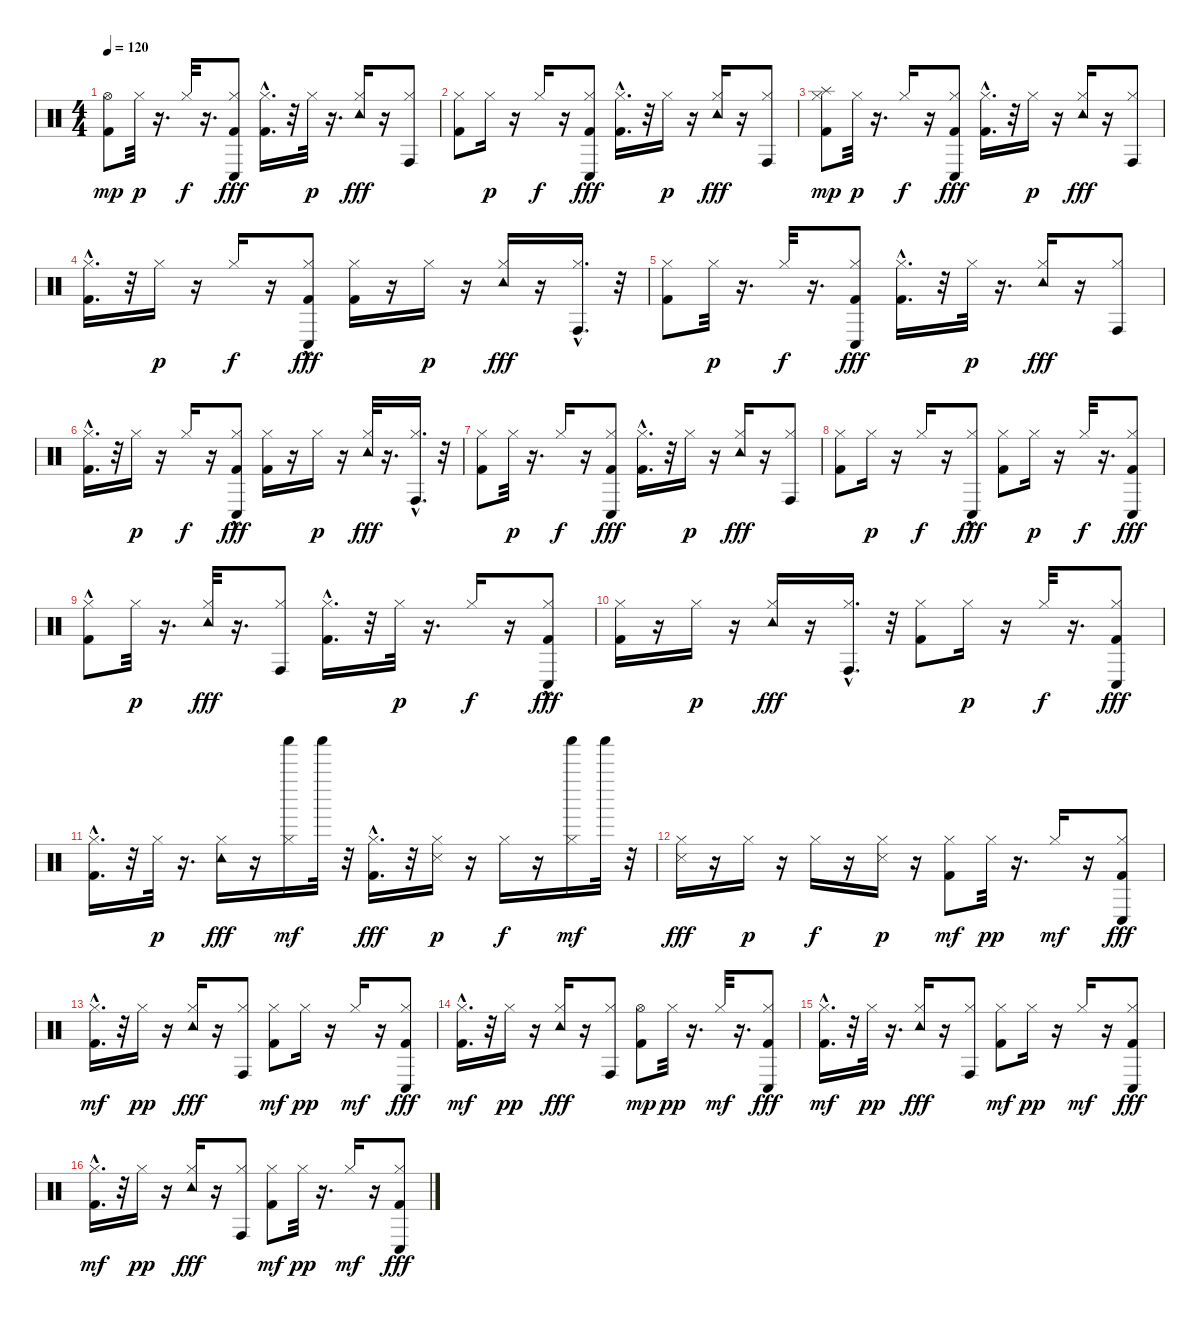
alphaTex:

\track "" {instrument percussion}
\staff {score}
\articulation defaults
\ts (4 4)
\tempo 120
\clef neutral
\ks c
("Kick (hit) 2" "Hi-Hat (open)").8{dy mp} "Hi-Hat (closed)".32{dy p} r.16{d} "Hi-Hat (closed)".32{dy f} r.16{d} ("Kick (hit) 2" "Hi-Hat (closed)" "Conga low (hit)").8{dy fff} ("Kick (hit) 2"{hac} "Hi-Hat (closed)").16{d} r.32 "Hi-Hat (closed)".32{dy p} r.16{d} ("Hi-Hat (closed)" "Tambourine (hit)").16{dy fff} r.16 ("Hi-Hat (closed)" "Conga high (hit)").8 |
("Kick (hit) 2" "Hi-Hat (closed)").8 "Hi-Hat (closed)".16{dy p} r.16 "Hi-Hat (closed)".16{dy f} r.16 ("Kick (hit) 2" "Hi-Hat (closed)" "Conga low (hit)").8{dy fff} ("Kick (hit) 2"{hac} "Hi-Hat (closed)").16{d} r.32 "Hi-Hat (closed)".16{dy p} r.16 ("Hi-Hat (closed)" "Tambourine (hit)").16{dy fff} r.16 ("Hi-Hat (closed)" "Conga high (hit)").8 |
("Kick (hit) 2" "Hi-Hat (closed)" "Splash (hit)").8{dy mp} "Hi-Hat (closed)".32{dy p} r.16{d} "Hi-Hat (closed)".16{dy f} r.16 ("Kick (hit) 2" "Hi-Hat (closed)" "Conga low (hit)").8{dy fff} ("Kick (hit) 2"{hac} "Hi-Hat (closed)").16{d} r.32 "Hi-Hat (closed)".16{dy p} r.16 ("Hi-Hat (closed)" "Tambourine (hit)").16{dy fff} r.16 ("Hi-Hat (closed)" "Conga high (hit)").8 |
("Kick (hit) 2"{hac} "Hi-Hat (closed)").16{d} r.32 "Hi-Hat (closed)".16{dy p} r.16 "Hi-Hat (closed)".16{dy f} r.16 ("Kick (hit) 2" "Hi-Hat (closed)" "Conga low (hit)"{hac}).8{dy fff} ("Kick (hit) 2" "Hi-Hat (closed)").16 r.16 "Hi-Hat (closed)".16{dy p} r.16 ("Hi-Hat (closed)" "Tambourine (hit)").16{dy fff} r.16 ("Hi-Hat (closed)" "Conga high (hit)"{hac}).16{d} r.32 |
("Kick (hit) 2" "Hi-Hat (closed)").8 "Hi-Hat (closed)".32{dy p} r.16{d} "Hi-Hat (closed)".32{dy f} r.16{d} ("Kick (hit) 2" "Hi-Hat (closed)" "Conga low (hit)").8{dy fff} ("Kick (hit) 2"{hac} "Hi-Hat (closed)").16{d} r.32 "Hi-Hat (closed)".32{dy p} r.16{d} ("Hi-Hat (closed)" "Tambourine (hit)").16{dy fff} r.16 ("Hi-Hat (closed)" "Conga high (hit)").8 |
("Kick (hit) 2"{hac} "Hi-Hat (closed)").16{d} r.32 "Hi-Hat (closed)".16{dy p} r.16 "Hi-Hat (closed)".16{dy f} r.16 ("Kick (hit) 2" "Hi-Hat (closed)" "Conga low (hit)"{hac}).8{dy fff} ("Kick (hit) 2" "Hi-Hat (closed)").16 r.16 "Hi-Hat (closed)".16{dy p} r.16 ("Hi-Hat (closed)" "Tambourine (hit)").32{dy fff} r.16{d} ("Hi-Hat (closed)" "Conga high (hit)"{hac}).16{d} r.32 |
("Kick (hit) 2" "Hi-Hat (closed)").8 "Hi-Hat (closed)".32{dy p} r.16{d} "Hi-Hat (closed)".16{dy f} r.16 ("Kick (hit) 2" "Hi-Hat (closed)" "Conga low (hit)").8{dy fff} ("Kick (hit) 2"{hac} "Hi-Hat (closed)").16{d} r.32 "Hi-Hat (closed)".16{dy p} r.16 ("Hi-Hat (closed)" "Tambourine (hit)").16{dy fff} r.16 ("Hi-Hat (closed)" "Conga high (hit)").8 |
("Kick (hit) 2" "Hi-Hat (closed)").8 "Hi-Hat (closed)".16{dy p} r.16 "Hi-Hat (closed)".16{dy f} r.16 ("Hi-Hat (closed)" "Conga low (hit)"{hac}).8{dy fff} ("Kick (hit) 2" "Hi-Hat (closed)").8 "Hi-Hat (closed)".16{dy p} r.16 "Hi-Hat (closed)".32{dy f} r.16{d} ("Kick (hit) 2" "Hi-Hat (closed)" "Conga low (hit)").8{dy fff} |
("Kick (hit) 2"{hac} "Hi-Hat (closed)").8 "Hi-Hat (closed)".32{dy p} r.16{d} ("Hi-Hat (closed)" "Tambourine (hit)").32{dy fff} r.16{d} ("Hi-Hat (closed)" "Conga high (hit)").8 ("Kick (hit) 2"{hac} "Hi-Hat (closed)").16{d} r.32 "Hi-Hat (closed)".32{dy p} r.16{d} "Hi-Hat (closed)".16{dy f} r.16 ("Kick (hit) 2" "Hi-Hat (closed)" "Conga low (hit)"{hac}).8{dy fff} |
("Kick (hit) 2" "Hi-Hat (closed)").16 r.16 "Hi-Hat (closed)".16{dy p} r.16 ("Hi-Hat (closed)" "Tambourine (hit)").16{dy fff} r.16 ("Hi-Hat (closed)" "Conga high (hit)"{hac}).16{d} r.32 ("Kick (hit) 2" "Hi-Hat (closed)").8 "Hi-Hat (closed)".16{dy p} r.16 "Hi-Hat (closed)".32{dy f} r.16{d} ("Kick (hit) 2" "Hi-Hat (closed)" "Conga low (hit)").8{dy fff} |
("Kick (hit) 2"{hac} "Hi-Hat (closed)").16{d} r.32 "Hi-Hat (closed)".32{dy p} r.16{d} ("Hi-Hat (closed)" "Tambourine (hit)").16{dy fff} r.16 ("Hi-Hat (closed)" "Shaker (hit)").16{dy mf} "Shaker (hit)".32 r.32 ("Kick (hit) 2"{hac} "Hi-Hat (closed)").16{d dy fff} r.32 ("Snare (side stick) 3" "Hi-Hat (closed)").16{dy p} r.16 "Hi-Hat (closed)".16{dy f} r.16 ("Hi-Hat (closed)" "Shaker (hit)").16{dy mf} "Shaker (hit)".32 r.32 |
("Snare (side stick) 3" "Hi-Hat (closed)").16{dy fff} r.16 "Hi-Hat (closed)".16{dy p} r.16 "Hi-Hat (closed)".16{dy f} r.16 ("Snare (side stick) 3" "Hi-Hat (closed)").16{dy p} r.16 ("Kick (hit) 2" "Hi-Hat (closed)").8{dy mf} "Hi-Hat (closed)".32{dy pp} r.16{d} "Hi-Hat (closed)".16{dy mf} r.16 ("Kick (hit) 2" "Hi-Hat (closed)" "Conga low (hit)").8{dy fff} |
("Kick (hit) 2"{hac} "Hi-Hat (closed)").16{d dy mf} r.32 "Hi-Hat (closed)".16{dy pp} r.16 ("Hi-Hat (closed)" "Tambourine (hit)").16{dy fff} r.16 ("Hi-Hat (closed)" "Conga high (hit)").8 ("Kick (hit) 2" "Hi-Hat (closed)").8{dy mf} "Hi-Hat (closed)".16{dy pp} r.16 "Hi-Hat (closed)".16{dy mf} r.16 ("Kick (hit) 2" "Hi-Hat (closed)" "Conga low (hit)").8{dy fff} |
("Kick (hit) 2"{hac} "Hi-Hat (closed)").16{d dy mf} r.32 "Hi-Hat (closed)".16{dy pp} r.16 ("Hi-Hat (closed)" "Tambourine (hit)").16{dy fff} r.16 ("Hi-Hat (closed)" "Conga high (hit)").8 ("Kick (hit) 2" "Hi-Hat (open)").8{dy mp} "Hi-Hat (closed)".32{dy pp} r.16{d} "Hi-Hat (closed)".32{dy mf} r.16{d} ("Kick (hit) 2" "Hi-Hat (closed)" "Conga low (hit)").8{dy fff} |
("Kick (hit) 2"{hac} "Hi-Hat (closed)").16{d dy mf} r.32 "Hi-Hat (closed)".32{dy pp} r.16{d} ("Hi-Hat (closed)" "Tambourine (hit)").16{dy fff} r.16 ("Hi-Hat (closed)" "Conga high (hit)").8 ("Kick (hit) 2" "Hi-Hat (closed)").8{dy mf} "Hi-Hat (closed)".16{dy pp} r.16 "Hi-Hat (closed)".16{dy mf} r.16 ("Kick (hit) 2" "Hi-Hat (closed)" "Conga low (hit)").8{dy fff} |
("Kick (hit) 2"{hac} "Hi-Hat (closed)").16{d dy mf} r.32 "Hi-Hat (closed)".16{dy pp} r.16 ("Hi-Hat (closed)" "Tambourine (hit)").16{dy fff} r.16 ("Hi-Hat (closed)" "Conga high (hit)").8 ("Kick (hit) 2" "Hi-Hat (closed)").8{dy mf} "Hi-Hat (closed)".32{dy pp} r.16{d} "Hi-Hat (closed)".16{dy mf} r.16 ("Kick (hit) 2" "Hi-Hat (closed)" "Conga low (hit)").8{dy fff}
